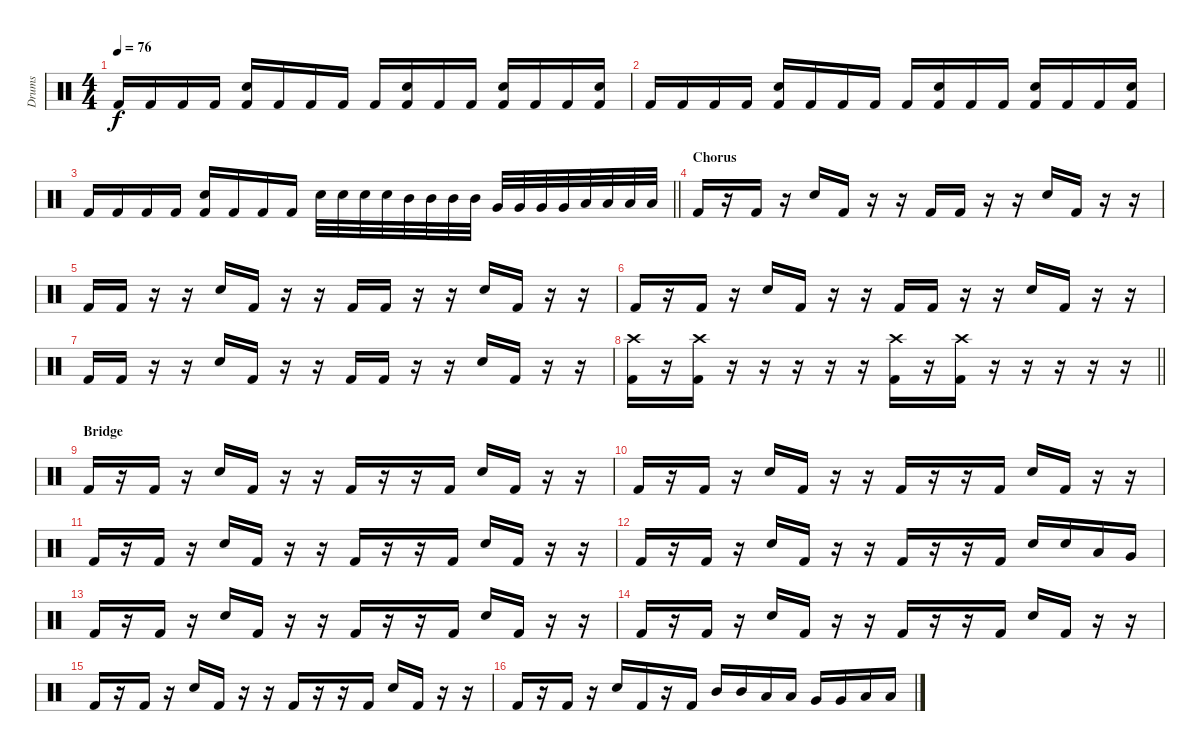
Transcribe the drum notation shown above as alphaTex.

\track ("Drums" "Drums") {instrument percussion}
\staff {score}
\articulation defaults
\ts (4 4)
\tempo 76
\clef neutral
\ks c "Kick (hit) 2".16{dy f} "Kick (hit) 2".16 "Kick (hit) 2".16 "Kick (hit) 2".16
("Electric Snare (hit)" "Kick (hit) 2").16 "Kick (hit) 2".16 "Kick (hit) 2".16 "Kick (hit) 2".16 "Kick (hit) 2".16 ("Electric Snare (hit)" "Kick (hit) 2").16 "Kick (hit) 2".16 "Kick (hit) 2".16 ("Electric Snare (hit)" "Kick (hit) 2").16 "Kick (hit) 2".16 "Kick (hit) 2".16 ("Electric Snare (hit)" "Kick (hit) 2").16 |
"Kick (hit) 2".16 "Kick (hit) 2".16 "Kick (hit) 2".16 "Kick (hit) 2".16 ("Electric Snare (hit)" "Kick (hit) 2").16 "Kick (hit) 2".16 "Kick (hit) 2".16 "Kick (hit) 2".16 "Kick (hit) 2".16 ("Electric Snare (hit)" "Kick (hit) 2").16 "Kick (hit) 2".16 "Kick (hit) 2".16 ("Electric Snare (hit)" "Kick (hit) 2").16 "Kick (hit) 2".16 "Kick (hit) 2".16 ("Electric Snare (hit)" "Kick (hit) 2").16 |
\barLineRight lightlight "Kick (hit) 2".16 "Kick (hit) 2".16 "Kick (hit) 2".16 "Kick (hit) 2".16
("Electric Snare (hit)" "Kick (hit) 2").16 "Kick (hit) 2".16 "Kick (hit) 2".16 "Kick (hit) 2".16 "Electric Snare (hit)".32 "Electric Snare (hit)".32 "Electric Snare (hit)".32 "Electric Snare (hit)".32 "Mid Tom (hit)".32 "Mid Tom (hit)".32 "Mid Tom (hit)".32 "Mid Tom (hit)".32 "Very Low Tom (hit)".32 "Very Low Tom (hit)".32 "Very Low Tom (hit)".32 "Very Low Tom (hit)".32 "Low Tom (hit)".32 "Low Tom (hit)".32 "Low Tom (hit)".32 "Low Tom (hit)".32 |
\section ("" "Chorus")
"Kick (hit) 2".16 r.16 "Kick (hit) 2".16 r.16 "Electric Snare (hit)".16 "Kick (hit) 2".16 r.16 r.16 "Kick (hit) 2".16 "Kick (hit) 2".16 r.16 r.16 "Electric Snare (hit)".16 "Kick (hit) 2".16 r.16 r.16 |
"Kick (hit) 2".16 "Kick (hit) 2".16 r.16 r.16 "Electric Snare (hit)".16 "Kick (hit) 2".16 r.16 r.16 "Kick (hit) 2".16 "Kick (hit) 2".16 r.16 r.16 "Electric Snare (hit)".16 "Kick (hit) 2".16 r.16 r.16 |
"Kick (hit) 2".16 r.16 "Kick (hit) 2".16 r.16 "Electric Snare (hit)".16 "Kick (hit) 2".16 r.16 r.16 "Kick (hit) 2".16 "Kick (hit) 2".16 r.16 r.16 "Electric Snare (hit)".16 "Kick (hit) 2".16 r.16 r.16 |
"Kick (hit) 2".16 "Kick (hit) 2".16 r.16 r.16 "Electric Snare (hit)".16 "Kick (hit) 2".16 r.16 r.16 "Kick (hit) 2".16 "Kick (hit) 2".16 r.16 r.16 "Electric Snare (hit)".16 "Kick (hit) 2".16 r.16 r.16 |
\barLineRight lightlight
("Crash high (hit)" "Kick (hit) 2").16 r.16 ("Crash high (hit)" "Kick (hit) 2").16 r.16 r.16 r.16 r.16 r.16 ("Crash high (hit)" "Kick (hit) 2").16 r.16 ("Crash high (hit)" "Kick (hit) 2").16 r.16 r.16 r.16 r.16 r.16 |
\section ("" "Bridge")
"Kick (hit) 2".16 r.16 "Kick (hit) 2".16 r.16 "Electric Snare (hit)".16 "Kick (hit) 2".16 r.16 r.16 "Kick (hit) 2".16 r.16 r.16 "Kick (hit) 2".16 "Electric Snare (hit)".16 "Kick (hit) 2".16 r.16 r.16 |
"Kick (hit) 2".16 r.16 "Kick (hit) 2".16 r.16 "Electric Snare (hit)".16 "Kick (hit) 2".16 r.16 r.16 "Kick (hit) 2".16 r.16 r.16 "Kick (hit) 2".16 "Electric Snare (hit)".16 "Kick (hit) 2".16 r.16 r.16 |
"Kick (hit) 2".16 r.16 "Kick (hit) 2".16 r.16 "Electric Snare (hit)".16 "Kick (hit) 2".16 r.16 r.16 "Kick (hit) 2".16 r.16 r.16 "Kick (hit) 2".16 "Electric Snare (hit)".16 "Kick (hit) 2".16 r.16 r.16 |
"Kick (hit) 2".16 r.16 "Kick (hit) 2".16 r.16 "Electric Snare (hit)".16 "Kick (hit) 2".16 r.16 r.16 "Kick (hit) 2".16 r.16 r.16 "Kick (hit) 2".16 "Electric Snare (hit)".16 "Electric Snare (hit)".16 "Low Tom (hit)".16 "Very Low Tom (hit)".16 |
"Kick (hit) 2".16 r.16 "Kick (hit) 2".16 r.16 "Electric Snare (hit)".16 "Kick (hit) 2".16 r.16 r.16 "Kick (hit) 2".16 r.16 r.16 "Kick (hit) 2".16 "Electric Snare (hit)".16 "Kick (hit) 2".16 r.16 r.16 |
"Kick (hit) 2".16 r.16 "Kick (hit) 2".16 r.16 "Electric Snare (hit)".16 "Kick (hit) 2".16 r.16 r.16 "Kick (hit) 2".16 r.16 r.16 "Kick (hit) 2".16 "Electric Snare (hit)".16 "Kick (hit) 2".16 r.16 r.16 |
"Kick (hit) 2".16 r.16 "Kick (hit) 2".16 r.16 "Electric Snare (hit)".16 "Kick (hit) 2".16 r.16 r.16 "Kick (hit) 2".16 r.16 r.16 "Kick (hit) 2".16 "Electric Snare (hit)".16 "Kick (hit) 2".16 r.16 r.16 |
"Kick (hit) 2".16 r.16 "Kick (hit) 2".16 r.16 "Electric Snare (hit)".16 "Kick (hit) 2".16 r.16 "Kick (hit) 2".16 "Mid Tom (hit)".16 "Mid Tom (hit)".16 "Low Tom (hit)".16 "Low Tom (hit)".16 "Very Low Tom (hit)".16 "Very Low Tom (hit)".16 "Low Tom (hit)".16 "Low Tom (hit)".16
